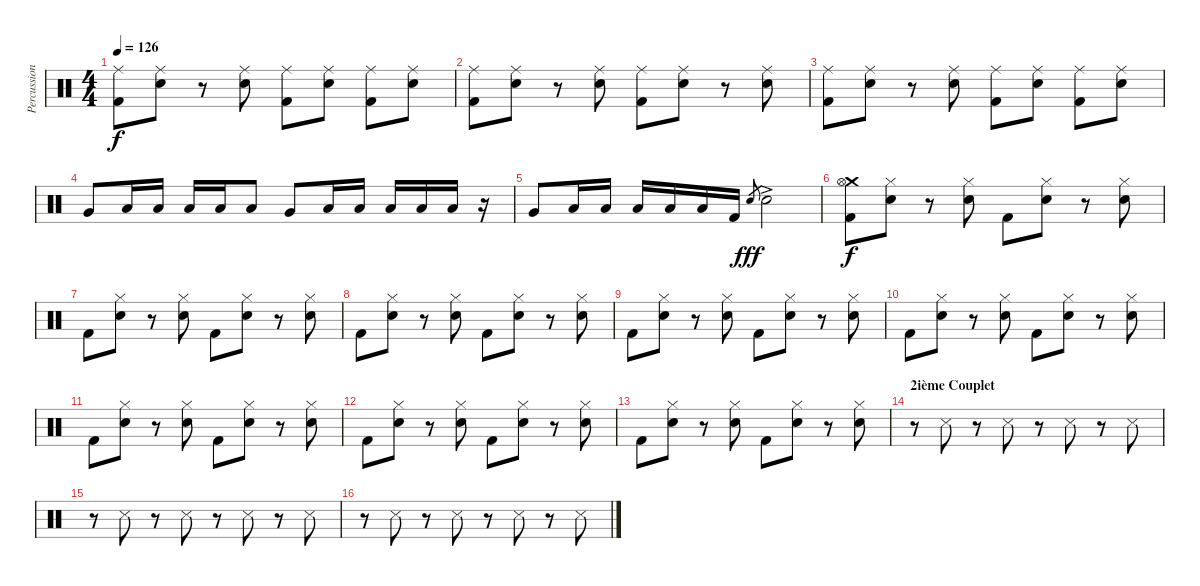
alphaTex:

\track ("Percussions" "Percussion") {instrument percussion}
\staff {score}
\articulation defaults
\ts (4 4)
\tempo 126
\clef neutral
\ks c
("Kick (hit) 2" "Ride (middle)").8{dy f} ("Snare (hit) 2" "Ride (middle)").8 r.8 ("Snare (hit) 2" "Ride (middle)").8 ("Kick (hit) 2" "Ride (middle)").8 ("Snare (hit) 2" "Ride (middle)").8 ("Kick (hit) 2" "Ride (middle)").8 ("Snare (hit) 2" "Ride (middle)").8 |
("Kick (hit) 2" "Ride (middle)").8 ("Snare (hit) 2" "Ride (middle)").8 r.8 ("Snare (hit) 2" "Ride (middle)").8 ("Kick (hit) 2" "Ride (middle)").8 ("Snare (hit) 2" "Ride (middle)").8 r.8 ("Snare (hit) 2" "Ride (middle)").8 |
("Kick (hit) 2" "Ride (middle)").8 ("Snare (hit) 2" "Ride (middle)").8 r.8 ("Snare (hit) 2" "Ride (middle)").8 ("Kick (hit) 2" "Ride (middle)").8 ("Snare (hit) 2" "Ride (middle)").8 ("Kick (hit) 2" "Ride (middle)").8 ("Snare (hit) 2" "Ride (middle)").8 |
"Very Low Tom (hit)".8 "Low Floor Tom (hit)".16 "Low Floor Tom (hit)".16 "Low Floor Tom (hit)".16 "Low Floor Tom (hit)".16 "Low Floor Tom (hit)".8 "Very Low Tom (hit)".8 "Low Floor Tom (hit)".16 "Low Floor Tom (hit)".16 "Low Floor Tom (hit)".16 "Low Floor Tom (hit)".16 "Low Floor Tom (hit)".16 r.16 |
"Very Low Tom (hit)".8 "Low Floor Tom (hit)".16 "Low Floor Tom (hit)".16 "Low Floor Tom (hit)".16 "Low Floor Tom (hit)".16 "Low Floor Tom (hit)".16 "Kick (hit) 2".16 "Snare (hit) 2".8{gr dy fff} "Snare (hit) 2"{ac}.2 |
("Kick (hit) 2" "Crash medium (hit)" "Hi-Hat (open)").8{dy f} ("Snare (hit) 2" "Hi-Hat (closed)").8 r.8 ("Snare (hit) 2" "Hi-Hat (closed)").8 "Kick (hit) 2".8 ("Snare (hit) 2" "Hi-Hat (closed)").8 r.8 ("Snare (hit) 2" "Hi-Hat (closed)").8 |
"Kick (hit) 2".8 ("Snare (hit) 2" "Hi-Hat (closed)").8 r.8 ("Snare (hit) 2" "Hi-Hat (closed)").8 "Kick (hit) 2".8 ("Snare (hit) 2" "Hi-Hat (closed)").8 r.8 ("Snare (hit) 2" "Hi-Hat (closed)").8 |
"Kick (hit) 2".8 ("Snare (hit) 2" "Hi-Hat (closed)").8 r.8 ("Snare (hit) 2" "Hi-Hat (closed)").8 "Kick (hit) 2".8 ("Snare (hit) 2" "Hi-Hat (closed)").8 r.8 ("Snare (hit) 2" "Hi-Hat (closed)").8 |
"Kick (hit) 2".8 ("Snare (hit) 2" "Hi-Hat (closed)").8 r.8 ("Snare (hit) 2" "Hi-Hat (closed)").8 "Kick (hit) 2".8 ("Snare (hit) 2" "Hi-Hat (closed)").8 r.8 ("Snare (hit) 2" "Hi-Hat (closed)").8 |
"Kick (hit) 2".8 ("Snare (hit) 2" "Hi-Hat (closed)").8 r.8 ("Snare (hit) 2" "Hi-Hat (closed)").8 "Kick (hit) 2".8 ("Snare (hit) 2" "Hi-Hat (closed)").8 r.8 ("Snare (hit) 2" "Hi-Hat (closed)").8 |
"Kick (hit) 2".8 ("Snare (hit) 2" "Hi-Hat (closed)").8 r.8 ("Snare (hit) 2" "Hi-Hat (closed)").8 "Kick (hit) 2".8 ("Snare (hit) 2" "Hi-Hat (closed)").8 r.8 ("Snare (hit) 2" "Hi-Hat (closed)").8 |
"Kick (hit) 2".8 ("Snare (hit) 2" "Hi-Hat (closed)").8 r.8 ("Snare (hit) 2" "Hi-Hat (closed)").8 "Kick (hit) 2".8 ("Snare (hit) 2" "Hi-Hat (closed)").8 r.8 ("Snare (hit) 2" "Hi-Hat (closed)").8 |
"Kick (hit) 2".8 ("Snare (hit) 2" "Hi-Hat (closed)").8 r.8 ("Snare (hit) 2" "Hi-Hat (closed)").8 "Kick (hit) 2".8 ("Snare (hit) 2" "Hi-Hat (closed)").8 r.8 ("Snare (hit) 2" "Hi-Hat (closed)").8 |
\section ("" "2ième Couplet")
r.8 "Snare (side stick) 3".8 r.8 "Snare (side stick) 3".8 r.8 "Snare (side stick) 3".8 r.8 "Snare (side stick) 3".8 |
r.8 "Snare (side stick) 3".8 r.8 "Snare (side stick) 3".8 r.8 "Snare (side stick) 3".8 r.8 "Snare (side stick) 3".8 |
r.8 "Snare (side stick) 3".8 r.8 "Snare (side stick) 3".8 r.8 "Snare (side stick) 3".8 r.8 "Snare (side stick) 3".8
